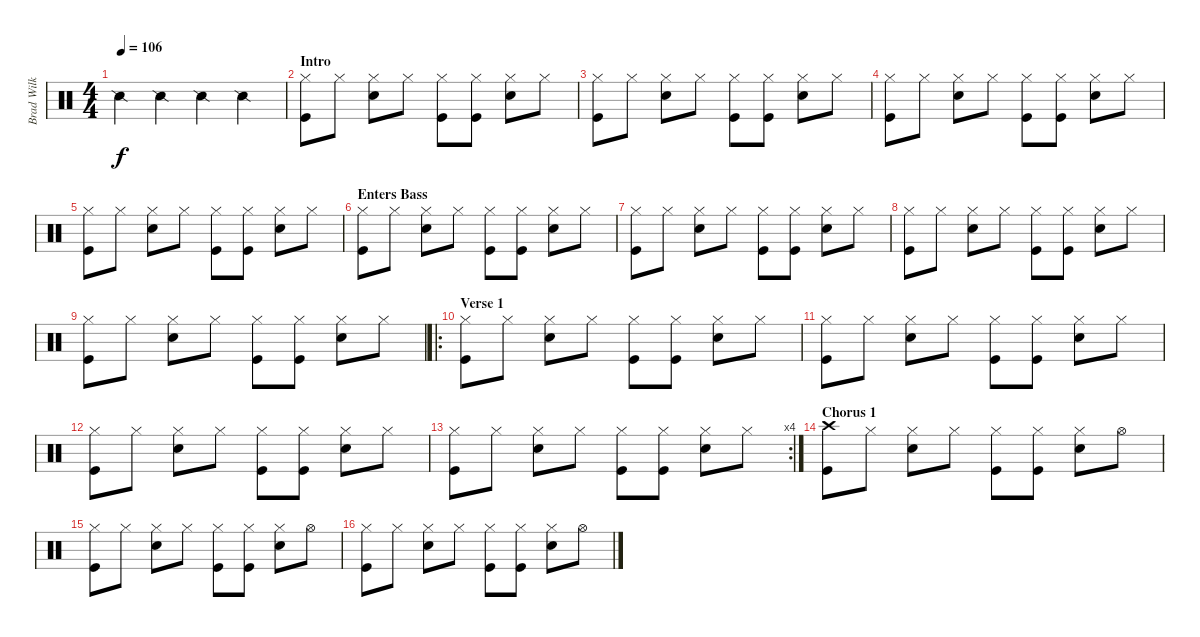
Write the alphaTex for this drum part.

\track ("Brad Wilk" "Brad Wilk") {instrument percussion}
\staff {score}
\articulation defaults
\ts (4 4)
\tempo 106
\clef neutral
\ks c "Snare (side stick) 2".4{dy f} "Snare (side stick) 2".4 "Snare (side stick) 2".4 "Snare (side stick) 2".4
|
\section ("" "Intro")
("Hi-Hat (closed)" "Kick (hit)").8 "Hi-Hat (closed)".8 ("Hi-Hat (closed)" "Electric Snare (hit)").8 "Hi-Hat (closed)".8 ("Hi-Hat (closed)" "Kick (hit)").8 ("Hi-Hat (closed)" "Kick (hit)").8 ("Hi-Hat (closed)" "Electric Snare (hit)").8 "Hi-Hat (closed)".8 |
("Hi-Hat (closed)" "Kick (hit)").8 "Hi-Hat (closed)".8 ("Hi-Hat (closed)" "Electric Snare (hit)").8 "Hi-Hat (closed)".8 ("Hi-Hat (closed)" "Kick (hit)").8 ("Hi-Hat (closed)" "Kick (hit)").8 ("Hi-Hat (closed)" "Electric Snare (hit)").8 "Hi-Hat (closed)".8 |
("Hi-Hat (closed)" "Kick (hit)").8 "Hi-Hat (closed)".8 ("Hi-Hat (closed)" "Electric Snare (hit)").8 "Hi-Hat (closed)".8 ("Hi-Hat (closed)" "Kick (hit)").8 ("Hi-Hat (closed)" "Kick (hit)").8 ("Hi-Hat (closed)" "Electric Snare (hit)").8 "Hi-Hat (closed)".8 |
("Hi-Hat (closed)" "Kick (hit)").8 "Hi-Hat (closed)".8 ("Hi-Hat (closed)" "Electric Snare (hit)").8 "Hi-Hat (closed)".8 ("Hi-Hat (closed)" "Kick (hit)").8 ("Hi-Hat (closed)" "Kick (hit)").8 ("Hi-Hat (closed)" "Electric Snare (hit)").8 "Hi-Hat (closed)".8 |
\section ("" "Enters Bass")
("Hi-Hat (closed)" "Kick (hit)").8 "Hi-Hat (closed)".8 ("Hi-Hat (closed)" "Electric Snare (hit)").8 "Hi-Hat (closed)".8 ("Hi-Hat (closed)" "Kick (hit)").8 ("Hi-Hat (closed)" "Kick (hit)").8 ("Hi-Hat (closed)" "Electric Snare (hit)").8 "Hi-Hat (closed)".8 |
("Hi-Hat (closed)" "Kick (hit)").8 "Hi-Hat (closed)".8 ("Hi-Hat (closed)" "Electric Snare (hit)").8 "Hi-Hat (closed)".8 ("Hi-Hat (closed)" "Kick (hit)").8 ("Hi-Hat (closed)" "Kick (hit)").8 ("Hi-Hat (closed)" "Electric Snare (hit)").8 "Hi-Hat (closed)".8 |
("Hi-Hat (closed)" "Kick (hit)").8 "Hi-Hat (closed)".8 ("Hi-Hat (closed)" "Electric Snare (hit)").8 "Hi-Hat (closed)".8 ("Hi-Hat (closed)" "Kick (hit)").8 ("Hi-Hat (closed)" "Kick (hit)").8 ("Hi-Hat (closed)" "Electric Snare (hit)").8 "Hi-Hat (closed)".8 |
("Hi-Hat (closed)" "Kick (hit)").8 "Hi-Hat (closed)".8 ("Hi-Hat (closed)" "Electric Snare (hit)").8 "Hi-Hat (closed)".8 ("Hi-Hat (closed)" "Kick (hit)").8 ("Hi-Hat (closed)" "Kick (hit)").8 ("Hi-Hat (closed)" "Electric Snare (hit)").8 "Hi-Hat (closed)".8 |
\ro
\section ("" "Verse 1")
("Hi-Hat (closed)" "Kick (hit)").8 "Hi-Hat (closed)".8 ("Hi-Hat (closed)" "Electric Snare (hit)").8 "Hi-Hat (closed)".8 ("Hi-Hat (closed)" "Kick (hit)").8 ("Hi-Hat (closed)" "Kick (hit)").8 ("Hi-Hat (closed)" "Electric Snare (hit)").8 "Hi-Hat (closed)".8 |
("Hi-Hat (closed)" "Kick (hit)").8 "Hi-Hat (closed)".8 ("Hi-Hat (closed)" "Electric Snare (hit)").8 "Hi-Hat (closed)".8 ("Hi-Hat (closed)" "Kick (hit)").8 ("Hi-Hat (closed)" "Kick (hit)").8 ("Hi-Hat (closed)" "Electric Snare (hit)").8 "Hi-Hat (closed)".8 |
("Hi-Hat (closed)" "Kick (hit)").8 "Hi-Hat (closed)".8 ("Hi-Hat (closed)" "Electric Snare (hit)").8 "Hi-Hat (closed)".8 ("Hi-Hat (closed)" "Kick (hit)").8 ("Hi-Hat (closed)" "Kick (hit)").8 ("Hi-Hat (closed)" "Electric Snare (hit)").8 "Hi-Hat (closed)".8 |
\rc 4
("Hi-Hat (closed)" "Kick (hit)").8 "Hi-Hat (closed)".8 ("Hi-Hat (closed)" "Electric Snare (hit)").8 "Hi-Hat (closed)".8 ("Hi-Hat (closed)" "Kick (hit)").8 ("Hi-Hat (closed)" "Kick (hit)").8 ("Hi-Hat (closed)" "Electric Snare (hit)").8 "Hi-Hat (closed)".8 |
\section ("" "Chorus 1")
("Crash high (hit)" "Kick (hit)").8 "Hi-Hat (closed)".8 ("Hi-Hat (closed)" "Electric Snare (hit)").8 "Hi-Hat (closed)".8 ("Hi-Hat (closed)" "Kick (hit)").8 ("Hi-Hat (closed)" "Kick (hit)").8 ("Hi-Hat (closed)" "Electric Snare (hit)").8 "Hi-Hat (open)".8 |
("Hi-Hat (closed)" "Kick (hit)").8 "Hi-Hat (closed)".8 ("Hi-Hat (closed)" "Electric Snare (hit)").8 "Hi-Hat (closed)".8 ("Hi-Hat (closed)" "Kick (hit)").8 ("Hi-Hat (closed)" "Kick (hit)").8 ("Hi-Hat (closed)" "Electric Snare (hit)").8 "Hi-Hat (open)".8 |
("Hi-Hat (closed)" "Kick (hit)").8 "Hi-Hat (closed)".8 ("Hi-Hat (closed)" "Electric Snare (hit)").8 "Hi-Hat (closed)".8 ("Hi-Hat (closed)" "Kick (hit)").8 ("Hi-Hat (closed)" "Kick (hit)").8 ("Hi-Hat (closed)" "Electric Snare (hit)").8 "Hi-Hat (open)".8
